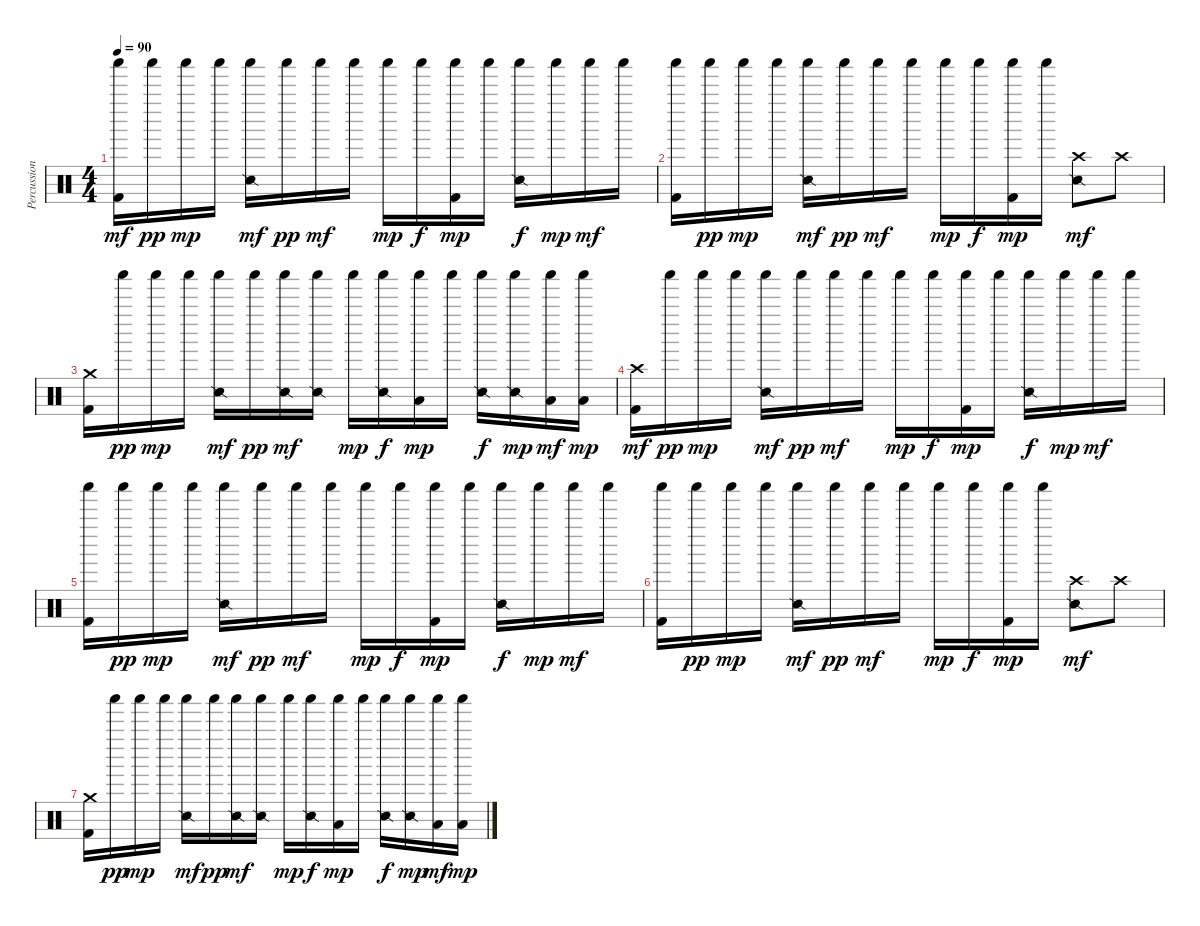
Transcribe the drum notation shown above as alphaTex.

\track ("Percussions" "Percussion") {instrument percussion}
\staff {score}
\articulation defaults
\ts (4 4)
\tempo 90
\clef neutral
\ks c
("Shaker (hit)" "Kick (hit) 2").16{dy mf} "Shaker (hit)".16{dy pp} "Shaker (hit)".16{dy mp} "Shaker (hit)".16 ("Shaker (hit)" "Snare (side stick) 2").16{dy mf} "Shaker (hit)".16{dy pp} "Shaker (hit)".16{dy mf} "Shaker (hit)".16 "Shaker (hit)".16{dy mp volume 8} "Shaker (hit)".16{dy f} ("Shaker (hit)" "Kick (hit) 2").16{dy mp} "Shaker (hit)".16 ("Shaker (hit)" "Snare (side stick) 2").16{dy f} "Shaker (hit)".16{dy mp} "Shaker (hit)".16{dy mf} "Shaker (hit)".16 |
("Shaker (hit)" "Kick (hit) 2").16{volume 7} "Shaker (hit)".16{dy pp} "Shaker (hit)".16{dy mp} "Shaker (hit)".16 ("Shaker (hit)" "Snare (side stick) 2").16{dy mf} "Shaker (hit)".16{dy pp} "Shaker (hit)".16{dy mf} "Shaker (hit)".16 "Shaker (hit)".16{dy mp} "Shaker (hit)".16{dy f} ("Shaker (hit)" "Kick (hit) 2").16{dy mp} "Shaker (hit)".16 ("Crash high (hit)" "Snare (side stick) 2").8{dy mf} "Crash high (hit)".8 |
("Crash medium (hit)" "Kick (hit) 2").16{volume 6} "Shaker (hit)".16{dy pp} "Shaker (hit)".16{dy mp} "Shaker (hit)".16 ("Shaker (hit)" "Snare (side stick) 2").16{dy mf} "Shaker (hit)".16{dy pp} ("Shaker (hit)" "Snare (side stick) 2").16{dy mf} ("Shaker (hit)" "Snare (side stick) 2").16 "Shaker (hit)".16{dy mp} ("Shaker (hit)" "Snare (side stick) 2").16{dy f} ("Shaker (hit)" "Low Tom (hit)").16{dy mp} "Shaker (hit)".16 ("Shaker (hit)" "Snare (side stick) 2").16{dy f} ("Shaker (hit)" "Snare (side stick) 2").16{dy mp} ("Shaker (hit)" "Low Tom (hit)").16{dy mf} ("Shaker (hit)" "Low Tom (hit)").16{dy mp} |
("Crash high (hit)" "Kick (hit) 2").16{dy mf volume 5} "Shaker (hit)".16{dy pp} "Shaker (hit)".16{dy mp} "Shaker (hit)".16 ("Shaker (hit)" "Snare (side stick) 2").16{dy mf} "Shaker (hit)".16{dy pp} "Shaker (hit)".16{dy mf} "Shaker (hit)".16 "Shaker (hit)".16{dy mp volume 4} "Shaker (hit)".16{dy f} ("Shaker (hit)" "Kick (hit) 2").16{dy mp} "Shaker (hit)".16 ("Shaker (hit)" "Snare (side stick) 2").16{dy f} "Shaker (hit)".16{dy mp} "Shaker (hit)".16{dy mf} "Shaker (hit)".16 |
("Shaker (hit)" "Kick (hit) 2").16{volume 3} "Shaker (hit)".16{dy pp} "Shaker (hit)".16{dy mp} "Shaker (hit)".16 ("Shaker (hit)" "Snare (side stick) 2").16{dy mf} "Shaker (hit)".16{dy pp} "Shaker (hit)".16{dy mf} "Shaker (hit)".16 "Shaker (hit)".16{dy mp} "Shaker (hit)".16{dy f} ("Shaker (hit)" "Kick (hit) 2").16{dy mp} "Shaker (hit)".16 ("Shaker (hit)" "Snare (side stick) 2").16{dy f} "Shaker (hit)".16{dy mp} "Shaker (hit)".16{dy mf} "Shaker (hit)".16 |
("Shaker (hit)" "Kick (hit) 2").16{volume 2} "Shaker (hit)".16{dy pp} "Shaker (hit)".16{dy mp} "Shaker (hit)".16 ("Shaker (hit)" "Snare (side stick) 2").16{dy mf} "Shaker (hit)".16{dy pp} "Shaker (hit)".16{dy mf} "Shaker (hit)".16 "Shaker (hit)".16{dy mp} "Shaker (hit)".16{dy f} ("Shaker (hit)" "Kick (hit) 2").16{dy mp} "Shaker (hit)".16 ("Crash high (hit)" "Snare (side stick) 2").8{dy mf} "Crash high (hit)".8 |
("Crash medium (hit)" "Kick (hit) 2").16{volume 1} "Shaker (hit)".16{dy pp} "Shaker (hit)".16{dy mp} "Shaker (hit)".16 ("Shaker (hit)" "Snare (side stick) 2").16{dy mf} "Shaker (hit)".16{dy pp} ("Shaker (hit)" "Snare (side stick) 2").16{dy mf} ("Shaker (hit)" "Snare (side stick) 2").16 "Shaker (hit)".16{dy mp} ("Shaker (hit)" "Snare (side stick) 2").16{dy f} ("Shaker (hit)" "Low Tom (hit)").16{dy mp} "Shaker (hit)".16 ("Shaker (hit)" "Snare (side stick) 2").16{dy f volume 0} ("Shaker (hit)" "Snare (side stick) 2").16{dy mp} ("Shaker (hit)" "Low Tom (hit)").16{dy mf} ("Shaker (hit)" "Low Tom (hit)").16{dy mp}
